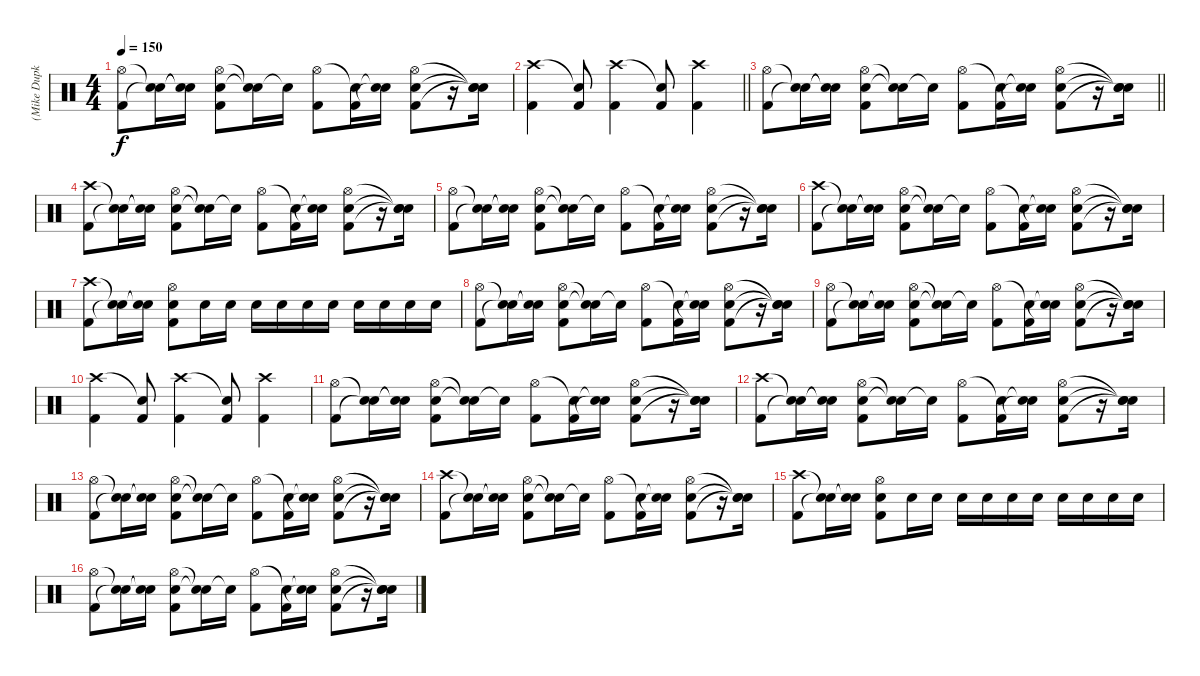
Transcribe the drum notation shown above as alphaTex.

\track ("(Mike Dupke) Drums" "(Mike Dupk") {instrument percussion}
\staff {score}
\articulation defaults
\ts (4 4)
\tempo 150
\clef neutral
\ks c
("Hi-Hat (open)" "Kick (hit) 2").8{dy f} ("Snare (hit)"{t} "Snare (hit)"{t}).16 ("Snare (hit)"{t} "Snare (hit)"{t}).16 ("Hi-Hat (open)" "Snare (hit) 2" "Kick (hit) 2").8 ("Snare (hit)"{t} "Snare (hit)"{t}).16 "Snare (hit)"{t}.16 ("Hi-Hat (open)" "Kick (hit) 2").8 ("Snare (hit)"{t} "Kick (hit) 2").16 ("Snare (hit)"{t} "Snare (hit)"{t}).16 ("Hi-Hat (open)" "Snare (hit) 2" "Kick (hit) 2").8 r.16 ("Snare (hit)"{t} "Snare (hit)"{t} "Snare (hit)"{t}).16 |
\barLineRight lightlight
("Crash high (hit)" "Kick (hit) 2").4 ("Snare (hit)"{t} "Kick (hit) 2").8 ("Crash high (hit)" "Kick (hit) 2").4 ("Snare (hit)"{t} "Kick (hit) 2").8 ("Crash high (hit)" "Kick (hit) 2").4 |
\barLineRight lightlight
("Hi-Hat (open)" "Kick (hit) 2").8 ("Snare (hit)"{t} "Snare (hit)"{t}).16 ("Snare (hit)"{t} "Snare (hit)"{t}).16 ("Hi-Hat (open)" "Snare (hit) 2" "Kick (hit) 2").8 ("Snare (hit)"{t} "Snare (hit)"{t}).16 "Snare (hit)"{t}.16 ("Hi-Hat (open)" "Kick (hit) 2").8 ("Snare (hit)"{t} "Kick (hit) 2").16 ("Snare (hit)"{t} "Snare (hit)"{t}).16 ("Hi-Hat (open)" "Snare (hit) 2" "Kick (hit) 2").8 r.16 ("Snare (hit)"{t} "Snare (hit)"{t} "Snare (hit)"{t}).16 |
("Crash high (hit)" "Kick (hit) 2").8 ("Snare (hit)"{t} "Snare (hit)"{t}).16 ("Snare (hit)"{t} "Snare (hit)"{t}).16 ("Hi-Hat (open)" "Snare (hit) 2" "Kick (hit) 2").8 ("Snare (hit)"{t} "Snare (hit)"{t}).16 "Snare (hit)"{t}.16 ("Hi-Hat (open)" "Kick (hit) 2").8 ("Snare (hit)"{t} "Kick (hit) 2").16 ("Snare (hit)"{t} "Snare (hit)"{t}).16 ("Hi-Hat (open)" "Snare (hit) 2" "Kick (hit) 2").8 r.16 ("Snare (hit)"{t} "Snare (hit)"{t} "Snare (hit)"{t}).16 |
("Hi-Hat (open)" "Kick (hit) 2").8 ("Snare (hit)"{t} "Snare (hit)"{t}).16 ("Snare (hit)"{t} "Snare (hit)"{t}).16 ("Hi-Hat (open)" "Snare (hit) 2" "Kick (hit) 2").8 ("Snare (hit)"{t} "Snare (hit)"{t}).16 "Snare (hit)"{t}.16 ("Hi-Hat (open)" "Kick (hit) 2").8 ("Snare (hit)"{t} "Kick (hit) 2").16 ("Snare (hit)"{t} "Snare (hit)"{t}).16 ("Hi-Hat (open)" "Snare (hit) 2" "Kick (hit) 2").8 r.16 ("Snare (hit)"{t} "Snare (hit)"{t} "Snare (hit)"{t}).16 |
("Crash high (hit)" "Kick (hit) 2").8 ("Snare (hit)"{t} "Snare (hit)"{t}).16 ("Snare (hit)"{t} "Snare (hit)"{t}).16 ("Hi-Hat (open)" "Snare (hit) 2" "Kick (hit) 2").8 ("Snare (hit)"{t} "Snare (hit)"{t}).16 "Snare (hit)"{t}.16 ("Hi-Hat (open)" "Kick (hit) 2").8 ("Snare (hit)"{t} "Kick (hit) 2").16 ("Snare (hit)"{t} "Snare (hit)"{t}).16 ("Hi-Hat (open)" "Snare (hit) 2" "Kick (hit) 2").8 r.16 ("Snare (hit)"{t} "Snare (hit)"{t} "Snare (hit)"{t}).16 |
("Crash high (hit)" "Kick (hit) 2").8 ("Snare (hit)"{t} "Snare (hit)"{t}).16 ("Snare (hit)"{t} "Snare (hit)"{t}).16 ("Hi-Hat (open)" "Snare (hit) 2" "Kick (hit) 2").8 "Snare (hit) 2".16 "Snare (hit) 2".16 "Snare (hit) 2".16 "Snare (hit) 2".16 "Snare (hit) 2".16 "Snare (hit) 2".16 "Snare (hit) 2".16 "Snare (hit) 2".16 "Snare (hit) 2".16 "Snare (hit) 2".16 |
("Hi-Hat (open)" "Kick (hit) 2").8 ("Snare (hit)"{t} "Snare (hit)"{t}).16 ("Snare (hit)"{t} "Snare (hit)"{t}).16 ("Hi-Hat (open)" "Snare (hit) 2" "Kick (hit) 2").8 ("Snare (hit)"{t} "Snare (hit)"{t}).16 "Snare (hit)"{t}.16 ("Hi-Hat (open)" "Kick (hit) 2").8 ("Snare (hit)"{t} "Kick (hit) 2").16 ("Snare (hit)"{t} "Snare (hit)"{t}).16 ("Hi-Hat (open)" "Snare (hit) 2" "Kick (hit) 2").8 r.16 ("Snare (hit)"{t} "Snare (hit)"{t} "Snare (hit)"{t}).16 |
("Hi-Hat (open)" "Kick (hit) 2").8 ("Snare (hit)"{t} "Snare (hit)"{t}).16 ("Snare (hit)"{t} "Snare (hit)"{t}).16 ("Hi-Hat (open)" "Snare (hit) 2" "Kick (hit) 2").8 ("Snare (hit)"{t} "Snare (hit)"{t}).16 "Snare (hit)"{t}.16 ("Hi-Hat (open)" "Kick (hit) 2").8 ("Snare (hit)"{t} "Kick (hit) 2").16 ("Snare (hit)"{t} "Snare (hit)"{t}).16 ("Hi-Hat (open)" "Snare (hit) 2" "Kick (hit) 2").8 r.16 ("Snare (hit)"{t} "Snare (hit)"{t} "Snare (hit)"{t}).16 |
("Crash high (hit)" "Kick (hit) 2").4 ("Snare (hit)"{t} "Kick (hit) 2").8 ("Crash high (hit)" "Kick (hit) 2").4 ("Snare (hit)"{t} "Kick (hit) 2").8 ("Crash high (hit)" "Kick (hit) 2").4 |
("Hi-Hat (open)" "Kick (hit) 2").8 ("Snare (hit)"{t} "Snare (hit)"{t}).16 ("Snare (hit)"{t} "Snare (hit)"{t}).16 ("Hi-Hat (open)" "Snare (hit) 2" "Kick (hit) 2").8 ("Snare (hit)"{t} "Snare (hit)"{t}).16 "Snare (hit)"{t}.16 ("Hi-Hat (open)" "Kick (hit) 2").8 ("Snare (hit)"{t} "Kick (hit) 2").16 ("Snare (hit)"{t} "Snare (hit)"{t}).16 ("Hi-Hat (open)" "Snare (hit) 2" "Kick (hit) 2").8 r.16 ("Snare (hit)"{t} "Snare (hit)"{t} "Snare (hit)"{t}).16 |
("Crash high (hit)" "Kick (hit) 2").8 ("Snare (hit)"{t} "Snare (hit)"{t}).16 ("Snare (hit)"{t} "Snare (hit)"{t}).16 ("Hi-Hat (open)" "Snare (hit) 2" "Kick (hit) 2").8 ("Snare (hit)"{t} "Snare (hit)"{t}).16 "Snare (hit)"{t}.16 ("Hi-Hat (open)" "Kick (hit) 2").8 ("Snare (hit)"{t} "Kick (hit) 2").16 ("Snare (hit)"{t} "Snare (hit)"{t}).16 ("Hi-Hat (open)" "Snare (hit) 2" "Kick (hit) 2").8 r.16 ("Snare (hit)"{t} "Snare (hit)"{t} "Snare (hit)"{t}).16 |
("Hi-Hat (open)" "Kick (hit) 2").8 ("Snare (hit)"{t} "Snare (hit)"{t}).16 ("Snare (hit)"{t} "Snare (hit)"{t}).16 ("Hi-Hat (open)" "Snare (hit) 2" "Kick (hit) 2").8 ("Snare (hit)"{t} "Snare (hit)"{t}).16 "Snare (hit)"{t}.16 ("Hi-Hat (open)" "Kick (hit) 2").8 ("Snare (hit)"{t} "Kick (hit) 2").16 ("Snare (hit)"{t} "Snare (hit)"{t}).16 ("Hi-Hat (open)" "Snare (hit) 2" "Kick (hit) 2").8 r.16 ("Snare (hit)"{t} "Snare (hit)"{t} "Snare (hit)"{t}).16 |
("Crash high (hit)" "Kick (hit) 2").8 ("Snare (hit)"{t} "Snare (hit)"{t}).16 ("Snare (hit)"{t} "Snare (hit)"{t}).16 ("Hi-Hat (open)" "Snare (hit) 2" "Kick (hit) 2").8 ("Snare (hit)"{t} "Snare (hit)"{t}).16 "Snare (hit)"{t}.16 ("Hi-Hat (open)" "Kick (hit) 2").8 ("Snare (hit)"{t} "Kick (hit) 2").16 ("Snare (hit)"{t} "Snare (hit)"{t}).16 ("Hi-Hat (open)" "Snare (hit) 2" "Kick (hit) 2").8 r.16 ("Snare (hit)"{t} "Snare (hit)"{t} "Snare (hit)"{t}).16 |
("Crash high (hit)" "Kick (hit) 2").8 ("Snare (hit)"{t} "Snare (hit)"{t}).16 ("Snare (hit)"{t} "Snare (hit)"{t}).16 ("Hi-Hat (open)" "Snare (hit) 2" "Kick (hit) 2").8 "Snare (hit) 2".16 "Snare (hit) 2".16 "Snare (hit) 2".16 "Snare (hit) 2".16 "Snare (hit) 2".16 "Snare (hit) 2".16 "Snare (hit) 2".16 "Snare (hit) 2".16 "Snare (hit) 2".16 "Snare (hit) 2".16 |
("Hi-Hat (open)" "Kick (hit) 2").8 ("Snare (hit)"{t} "Snare (hit)"{t}).16 ("Snare (hit)"{t} "Snare (hit)"{t}).16 ("Hi-Hat (open)" "Snare (hit) 2" "Kick (hit) 2").8 ("Snare (hit)"{t} "Snare (hit)"{t}).16 "Snare (hit)"{t}.16 ("Hi-Hat (open)" "Kick (hit) 2").8 ("Snare (hit)"{t} "Kick (hit) 2").16 ("Snare (hit)"{t} "Snare (hit)"{t}).16 ("Hi-Hat (open)" "Snare (hit) 2" "Kick (hit) 2").8 r.16 ("Snare (hit)"{t} "Snare (hit)"{t} "Snare (hit)"{t}).16
